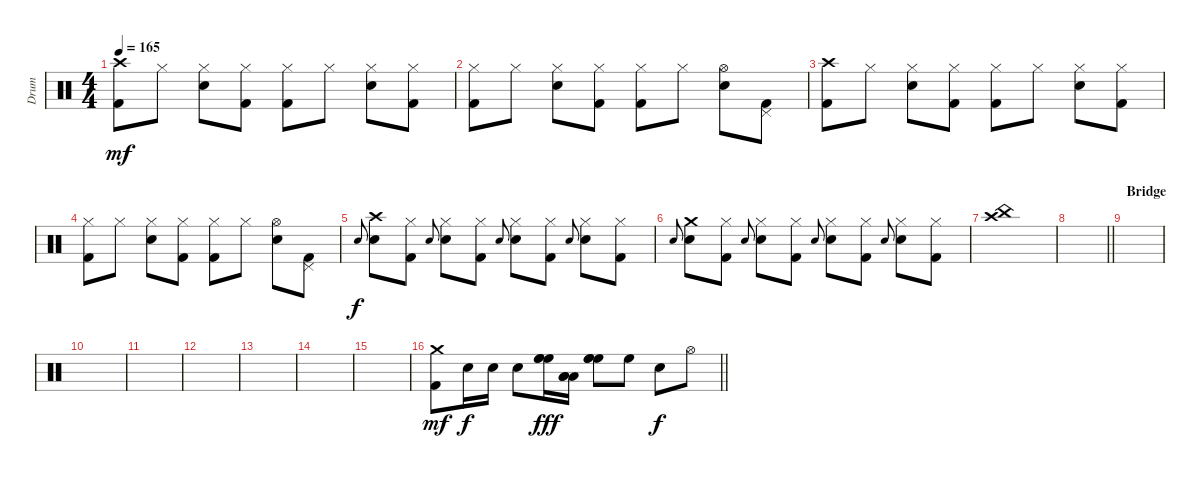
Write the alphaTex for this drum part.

\track ("Drum" "Drum") {instrument percussion}
\staff {score}
\articulation defaults
\ts (4 4)
\tempo 165
\clef neutral
\ks c
("Crash high (hit)" "Kick (hit) 2").8{dy mf} "Hi-Hat (closed)".8 ("Hi-Hat (closed)" "Electric Snare (hit)").8 ("Hi-Hat (closed)" "Kick (hit) 2").8 ("Hi-Hat (closed)" "Kick (hit) 2").8 "Hi-Hat (closed)".8 ("Hi-Hat (closed)" "Electric Snare (hit)").8 ("Hi-Hat (closed)" "Kick (hit) 2").8 |
("Hi-Hat (closed)" "Kick (hit) 2").8 "Hi-Hat (closed)".8 ("Hi-Hat (closed)" "Electric Snare (hit)").8 ("Hi-Hat (closed)" "Kick (hit) 2").8 ("Hi-Hat (closed)" "Kick (hit) 2").8 "Hi-Hat (closed)".8 ("Hi-Hat (open)" "Electric Snare (hit)").8 ("Pedal Hi-Hat (hit)" "Kick (hit) 2").8 |
("Crash high (hit)" "Kick (hit) 2").8 "Hi-Hat (closed)".8 ("Hi-Hat (closed)" "Electric Snare (hit)").8 ("Hi-Hat (closed)" "Kick (hit) 2").8 ("Hi-Hat (closed)" "Kick (hit) 2").8 "Hi-Hat (closed)".8 ("Hi-Hat (closed)" "Electric Snare (hit)").8 ("Hi-Hat (closed)" "Kick (hit) 2").8 |
("Hi-Hat (closed)" "Kick (hit) 2").8 "Hi-Hat (closed)".8 ("Hi-Hat (closed)" "Electric Snare (hit)").8 ("Hi-Hat (closed)" "Kick (hit) 2").8 ("Hi-Hat (closed)" "Kick (hit) 2").8 "Hi-Hat (closed)".8 ("Hi-Hat (open)" "Electric Snare (hit)").8 ("Pedal Hi-Hat (hit)" "Kick (hit) 2").8 |
"Electric Snare (hit)".8{gr onbeat dy f} ("Crash high (hit)" "Electric Snare (hit)").8 ("Hi-Hat (closed)" "Kick (hit) 2").8 "Electric Snare (hit)".8{gr onbeat} ("Hi-Hat (closed)" "Electric Snare (hit)").8 ("Hi-Hat (closed)" "Kick (hit) 2").8 "Electric Snare (hit)".8{gr onbeat} ("Hi-Hat (closed)" "Electric Snare (hit)").8 ("Hi-Hat (closed)" "Kick (hit) 2").8 "Electric Snare (hit)".8{gr onbeat} ("Hi-Hat (closed)" "Electric Snare (hit)").8 ("Hi-Hat (closed)" "Kick (hit) 2").8 |
"Electric Snare (hit)".8{gr onbeat} ("Crash medium (hit)" "Electric Snare (hit)").8 ("Hi-Hat (closed)" "Kick (hit) 2").8 "Electric Snare (hit)".8{gr onbeat} ("Hi-Hat (closed)" "Electric Snare (hit)").8 ("Hi-Hat (closed)" "Kick (hit) 2").8 "Electric Snare (hit)".8{gr onbeat} ("Hi-Hat (closed)" "Electric Snare (hit)").8 ("Hi-Hat (closed)" "Kick (hit) 2").8 "Electric Snare (hit)".8{gr onbeat} ("Hi-Hat (closed)" "Electric Snare (hit)").8 ("Hi-Hat (closed)" "Kick (hit) 2").8 |
("Crash high (hit)" "China (hit)").1 |
\barLineRight lightlight
|
\section ("" "Bridge")
|
|
|
|
|
|
|
\barLineRight lightlight
("Crash medium (hit)" "Kick (hit) 2").8{dy mf} "Electric Snare (hit)".16{dy f} "Electric Snare (hit)".16 "Electric Snare (hit)".8 ("High Floor Tom (hit)" "High Floor Tom (hit)" "High Floor Tom (hit)").16{dy fff} ("Low Tom (hit)" "Low Tom (hit)" "Low Tom (hit)").16 ("High Floor Tom (hit)" "High Floor Tom (hit)" "High Floor Tom (hit)").8 "High Floor Tom (hit)".8 "Electric Snare (hit)".8{dy f} "Hi-Hat (open)".8
